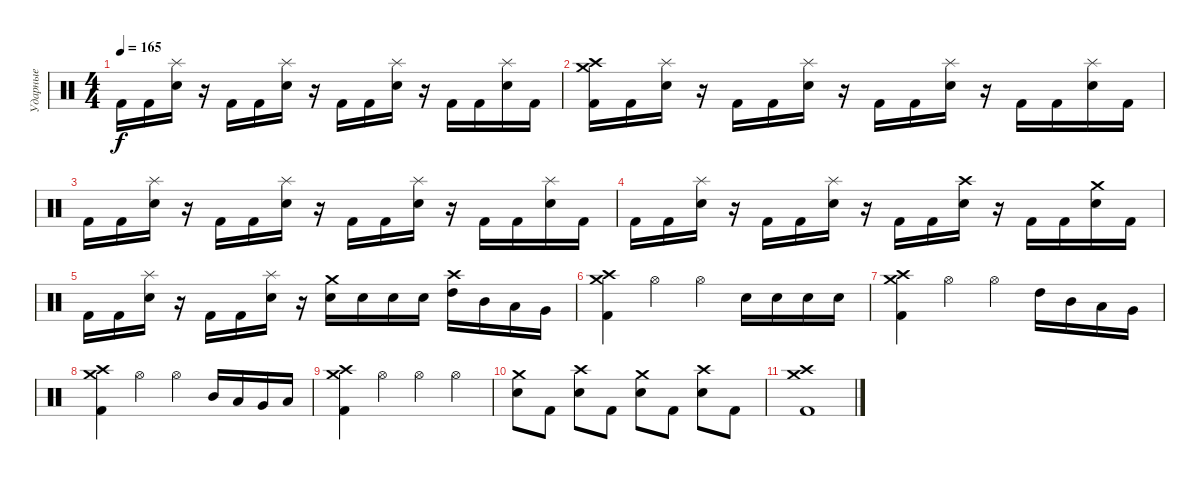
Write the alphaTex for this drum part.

\track ("Ударные" "Ударные") {instrument percussion}
\staff {score}
\articulation defaults
\ts (4 4)
\tempo 165
\clef neutral
\ks c "Kick (hit) 2".16{dy f} "Kick (hit) 2".16
("Splash (hit)" "Electric Snare (hit)").16 r.16 "Kick (hit) 2".16 "Kick (hit) 2".16 ("Splash (hit)" "Electric Snare (hit)").16 r.16 "Kick (hit) 2".16 "Kick (hit) 2".16 ("Splash (hit)" "Electric Snare (hit)").16 r.16 "Kick (hit) 2".16 "Kick (hit) 2".16 ("Splash (hit)" "Electric Snare (hit)").16 "Kick (hit) 2".16 |
("Crash medium (hit)" "Crash high (hit)" "Kick (hit) 2").16 "Kick (hit) 2".16 ("Splash (hit)" "Electric Snare (hit)").16 r.16 "Kick (hit) 2".16 "Kick (hit) 2".16 ("Splash (hit)" "Electric Snare (hit)").16 r.16 "Kick (hit) 2".16 "Kick (hit) 2".16 ("Splash (hit)" "Electric Snare (hit)").16 r.16 "Kick (hit) 2".16 "Kick (hit) 2".16 ("Splash (hit)" "Electric Snare (hit)").16 "Kick (hit) 2".16 |
"Kick (hit) 2".16 "Kick (hit) 2".16 ("Splash (hit)" "Electric Snare (hit)").16 r.16 "Kick (hit) 2".16 "Kick (hit) 2".16 ("Splash (hit)" "Electric Snare (hit)").16 r.16 "Kick (hit) 2".16 "Kick (hit) 2".16 ("Splash (hit)" "Electric Snare (hit)").16 r.16 "Kick (hit) 2".16 "Kick (hit) 2".16 ("Splash (hit)" "Electric Snare (hit)").16 "Kick (hit) 2".16 |
"Kick (hit) 2".16 "Kick (hit) 2".16 ("Splash (hit)" "Electric Snare (hit)").16 r.16 "Kick (hit) 2".16 "Kick (hit) 2".16 ("Splash (hit)" "Electric Snare (hit)").16 r.16 "Kick (hit) 2".16 "Kick (hit) 2".16 ("Crash high (hit)" "Electric Snare (hit)").16 r.16 "Kick (hit) 2".16 "Kick (hit) 2".16 ("Crash medium (hit)" "Electric Snare (hit)").16 "Kick (hit) 2".16 |
"Kick (hit) 2".16 "Kick (hit) 2".16 ("Splash (hit)" "Electric Snare (hit)").16 r.16 "Kick (hit) 2".16 "Kick (hit) 2".16 ("Splash (hit)" "Electric Snare (hit)").16 r.16 ("Crash medium (hit)" "Electric Snare (hit)").16 "Electric Snare (hit)".16 "Electric Snare (hit)".16 "Electric Snare (hit)".16 ("Crash high (hit)" "High Tom (hit)").16 "Mid Tom (hit)".16 "Low Tom (hit)".16 "Very Low Tom (hit)".16 |
("Crash medium (hit)" "Crash high (hit)" "Kick (hit) 2").4 "Hi-Hat (open)".4 "Hi-Hat (open)".4 "Electric Snare (hit)".16 "Electric Snare (hit)".16 "Electric Snare (hit)".16 "Electric Snare (hit)".16 |
("Crash medium (hit)" "Crash high (hit)" "Kick (hit) 2").4 "Hi-Hat (open)".4 "Hi-Hat (open)".4 "High Tom (hit)".16 "Mid Tom (hit)".16 "Low Tom (hit)".16 "Very Low Tom (hit)".16 |
("Crash medium (hit)" "Crash high (hit)" "Kick (hit) 2").4 "Hi-Hat (open)".4 "Hi-Hat (open)".4 "Mid Tom (hit)".16 "Low Tom (hit)".16 "Very Low Tom (hit)".16 "Low Floor Tom (hit)".16 |
("Crash medium (hit)" "Crash high (hit)" "Kick (hit) 2").4 "Hi-Hat (open)".4 "Hi-Hat (open)".4 "Hi-Hat (open)".4 |
("Crash medium (hit)" "Electric Snare (hit)").8 "Kick (hit) 2".8 ("Crash high (hit)" "Electric Snare (hit)").8 "Kick (hit) 2".8 ("Crash medium (hit)" "Electric Snare (hit)").8 "Kick (hit) 2".8 ("Crash high (hit)" "Electric Snare (hit)").8 "Kick (hit) 2".8 |
("Crash medium (hit)" "Crash high (hit)" "Kick (hit) 2").1
